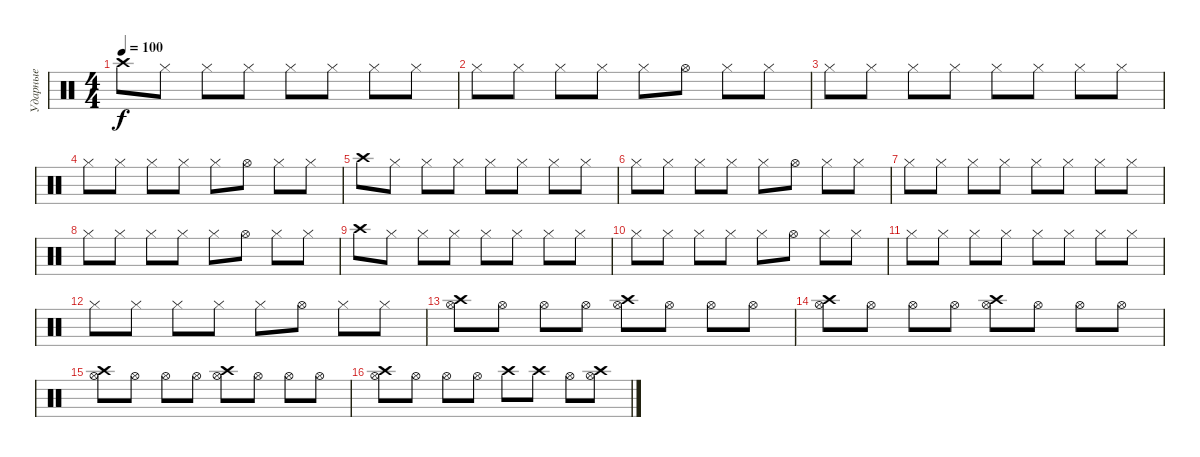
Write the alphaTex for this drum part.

\track ("Ударные" "Ударные") {instrument percussion}
\staff {score}
\articulation defaults
\ts (4 4)
\tempo 100
\clef neutral
\ks c "Crash high (hit)".8{dy f} "Hi-Hat (closed)".8 "Hi-Hat (closed)".8 "Hi-Hat (closed)".8 "Hi-Hat (closed)".8 "Hi-Hat (closed)".8 "Hi-Hat (closed)".8 "Hi-Hat (closed)".8
|
"Hi-Hat (closed)".8 "Hi-Hat (closed)".8 "Hi-Hat (closed)".8 "Hi-Hat (closed)".8 "Hi-Hat (closed)".8 "Hi-Hat (open)".8 "Hi-Hat (closed)".8 "Hi-Hat (closed)".8 |
"Hi-Hat (closed)".8 "Hi-Hat (closed)".8 "Hi-Hat (closed)".8 "Hi-Hat (closed)".8 "Hi-Hat (closed)".8 "Hi-Hat (closed)".8 "Hi-Hat (closed)".8 "Hi-Hat (closed)".8 |
"Hi-Hat (closed)".8 "Hi-Hat (closed)".8 "Hi-Hat (closed)".8 "Hi-Hat (closed)".8 "Hi-Hat (closed)".8 "Hi-Hat (open)".8 "Hi-Hat (closed)".8 "Hi-Hat (closed)".8 |
"Crash high (hit)".8 "Hi-Hat (closed)".8 "Hi-Hat (closed)".8 "Hi-Hat (closed)".8 "Hi-Hat (closed)".8 "Hi-Hat (closed)".8 "Hi-Hat (closed)".8 "Hi-Hat (closed)".8 |
"Hi-Hat (closed)".8 "Hi-Hat (closed)".8 "Hi-Hat (closed)".8 "Hi-Hat (closed)".8 "Hi-Hat (closed)".8 "Hi-Hat (open)".8 "Hi-Hat (closed)".8 "Hi-Hat (closed)".8 |
"Hi-Hat (closed)".8 "Hi-Hat (closed)".8 "Hi-Hat (closed)".8 "Hi-Hat (closed)".8 "Hi-Hat (closed)".8 "Hi-Hat (closed)".8 "Hi-Hat (closed)".8 "Hi-Hat (closed)".8 |
"Hi-Hat (closed)".8 "Hi-Hat (closed)".8 "Hi-Hat (closed)".8 "Hi-Hat (closed)".8 "Hi-Hat (closed)".8 "Hi-Hat (open)".8 "Hi-Hat (closed)".8 "Hi-Hat (closed)".8 |
"Crash high (hit)".8 "Hi-Hat (closed)".8 "Hi-Hat (closed)".8 "Hi-Hat (closed)".8 "Hi-Hat (closed)".8 "Hi-Hat (closed)".8 "Hi-Hat (closed)".8 "Hi-Hat (closed)".8 |
"Hi-Hat (closed)".8 "Hi-Hat (closed)".8 "Hi-Hat (closed)".8 "Hi-Hat (closed)".8 "Hi-Hat (closed)".8 "Hi-Hat (open)".8 "Hi-Hat (closed)".8 "Hi-Hat (closed)".8 |
"Hi-Hat (closed)".8 "Hi-Hat (closed)".8 "Hi-Hat (closed)".8 "Hi-Hat (closed)".8 "Hi-Hat (closed)".8 "Hi-Hat (closed)".8 "Hi-Hat (closed)".8 "Hi-Hat (closed)".8 |
"Hi-Hat (closed)".8 "Hi-Hat (closed)".8 "Hi-Hat (closed)".8 "Hi-Hat (closed)".8 "Hi-Hat (closed)".8 "Hi-Hat (open)".8 "Hi-Hat (closed)".8 "Hi-Hat (closed)".8 |
("Hi-Hat (open)" "Crash high (hit)").8 "Hi-Hat (open)".8 "Hi-Hat (open)".8 "Hi-Hat (open)".8 ("Hi-Hat (open)" "Crash high (hit)").8 "Hi-Hat (open)".8 "Hi-Hat (open)".8 "Hi-Hat (open)".8 |
("Hi-Hat (open)" "Crash high (hit)").8 "Hi-Hat (open)".8 "Hi-Hat (open)".8 "Hi-Hat (open)".8 ("Hi-Hat (open)" "Crash high (hit)").8 "Hi-Hat (open)".8 "Hi-Hat (open)".8 "Hi-Hat (open)".8 |
("Hi-Hat (open)" "Crash high (hit)").8 "Hi-Hat (open)".8 "Hi-Hat (open)".8 "Hi-Hat (open)".8 ("Hi-Hat (open)" "Crash high (hit)").8 "Hi-Hat (open)".8 "Hi-Hat (open)".8 "Hi-Hat (open)".8 |
("Hi-Hat (open)" "Crash high (hit)").8 "Hi-Hat (open)".8 "Hi-Hat (open)".8 "Hi-Hat (open)".8 "Crash high (hit)".8 "Crash high (hit)".8 "Hi-Hat (open)".8 ("Hi-Hat (open)" "Crash high (hit)").8
